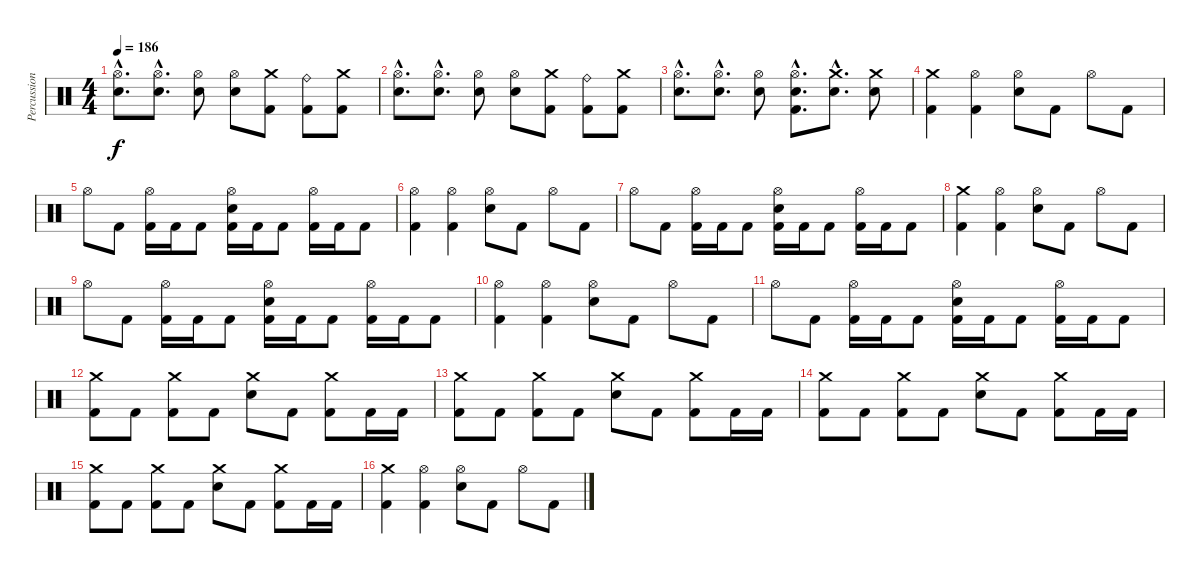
\track ("Percussion" "Percussion") {instrument percussion}
\staff {score}
\articulation defaults
\ts (4 4)
\tempo 186
\clef neutral
\ks c
("Hi-Hat (open)"{hac} "Snare (hit) 2"{hac}).8{d dy f} ("Hi-Hat (open)"{hac} "Snare (hit) 2"{hac}).8{d} ("Hi-Hat (open)" "Snare (hit) 2").8 ("Hi-Hat (open)" "Snare (hit) 2").8 ("Crash medium (hit)" "Kick (hit) 2").8 ("Ride (bell)" "Kick (hit) 2").8 ("Crash medium (hit)" "Kick (hit) 2").8 |
("Hi-Hat (open)"{hac} "Snare (hit) 2"{hac}).8{d} ("Hi-Hat (open)"{hac} "Snare (hit) 2"{hac}).8{d} ("Hi-Hat (open)" "Snare (hit) 2").8 ("Hi-Hat (open)" "Snare (hit) 2").8 ("Crash medium (hit)" "Kick (hit) 2").8 ("Ride (bell)" "Kick (hit) 2").8 ("Crash medium (hit)" "Kick (hit) 2").8 |
("Hi-Hat (open)"{hac} "Snare (hit) 2"{hac}).8{d} ("Hi-Hat (open)"{hac} "Snare (hit) 2"{hac}).8{d} ("Hi-Hat (open)" "Snare (hit) 2").8 ("Hi-Hat (open)"{hac} "Snare (hit) 2"{hac} "Kick (hit) 2"{hac}).8{d} ("Crash medium (hit)"{hac} "Snare (hit) 2"{hac}).8{d} ("Crash medium (hit)" "Snare (hit) 2").8 |
("Crash medium (hit)" "Kick (hit) 2").4 ("Hi-Hat (open)" "Kick (hit) 2").4 ("Hi-Hat (open)" "Snare (hit) 2").8 "Kick (hit) 2".8 "Hi-Hat (open)".8 "Kick (hit) 2".8 |
"Hi-Hat (open)".8 "Kick (hit) 2".8 ("Hi-Hat (open)" "Kick (hit) 2").16 "Kick (hit) 2".16 "Kick (hit) 2".8 ("Hi-Hat (open)" "Snare (hit) 2" "Kick (hit) 2").16 "Kick (hit) 2".16 "Kick (hit) 2".8 ("Hi-Hat (open)" "Kick (hit) 2").16 "Kick (hit) 2".16 "Kick (hit) 2".8 |
("Hi-Hat (open)" "Kick (hit) 2").4 ("Hi-Hat (open)" "Kick (hit) 2").4 ("Hi-Hat (open)" "Snare (hit) 2").8 "Kick (hit) 2".8 "Hi-Hat (open)".8 "Kick (hit) 2".8 |
"Hi-Hat (open)".8 "Kick (hit) 2".8 ("Hi-Hat (open)" "Kick (hit) 2").16 "Kick (hit) 2".16 "Kick (hit) 2".8 ("Hi-Hat (open)" "Snare (hit) 2" "Kick (hit) 2").16 "Kick (hit) 2".16 "Kick (hit) 2".8 ("Hi-Hat (open)" "Kick (hit) 2").16 "Kick (hit) 2".16 "Kick (hit) 2".8 |
("Crash medium (hit)" "Kick (hit) 2").4 ("Hi-Hat (open)" "Kick (hit) 2").4 ("Hi-Hat (open)" "Snare (hit) 2").8 "Kick (hit) 2".8 "Hi-Hat (open)".8 "Kick (hit) 2".8 |
"Hi-Hat (open)".8 "Kick (hit) 2".8 ("Hi-Hat (open)" "Kick (hit) 2").16 "Kick (hit) 2".16 "Kick (hit) 2".8 ("Hi-Hat (open)" "Snare (hit) 2" "Kick (hit) 2").16 "Kick (hit) 2".16 "Kick (hit) 2".8 ("Hi-Hat (open)" "Kick (hit) 2").16 "Kick (hit) 2".16 "Kick (hit) 2".8 |
("Hi-Hat (open)" "Kick (hit) 2").4 ("Hi-Hat (open)" "Kick (hit) 2").4 ("Hi-Hat (open)" "Snare (hit) 2").8 "Kick (hit) 2".8 "Hi-Hat (open)".8 "Kick (hit) 2".8 |
"Hi-Hat (open)".8 "Kick (hit) 2".8 ("Hi-Hat (open)" "Kick (hit) 2").16 "Kick (hit) 2".16 "Kick (hit) 2".8 ("Hi-Hat (open)" "Snare (hit) 2" "Kick (hit) 2").16 "Kick (hit) 2".16 "Kick (hit) 2".8 ("Hi-Hat (open)" "Kick (hit) 2").16 "Kick (hit) 2".16 "Kick (hit) 2".8 |
("Crash medium (hit)" "Kick (hit) 2").8 "Kick (hit) 2".8 ("Crash medium (hit)" "Kick (hit) 2").8 "Kick (hit) 2".8 ("Crash medium (hit)" "Snare (hit) 2").8 "Kick (hit) 2".8 ("Crash medium (hit)" "Kick (hit) 2").8 "Kick (hit) 2".16 "Kick (hit) 2".16 |
("Crash medium (hit)" "Kick (hit) 2").8 "Kick (hit) 2".8 ("Crash medium (hit)" "Kick (hit) 2").8 "Kick (hit) 2".8 ("Crash medium (hit)" "Snare (hit) 2").8 "Kick (hit) 2".8 ("Crash medium (hit)" "Kick (hit) 2").8 "Kick (hit) 2".16 "Kick (hit) 2".16 |
("Crash medium (hit)" "Kick (hit) 2").8 "Kick (hit) 2".8 ("Crash medium (hit)" "Kick (hit) 2").8 "Kick (hit) 2".8 ("Crash medium (hit)" "Snare (hit) 2").8 "Kick (hit) 2".8 ("Crash medium (hit)" "Kick (hit) 2").8 "Kick (hit) 2".16 "Kick (hit) 2".16 |
("Crash medium (hit)" "Kick (hit) 2").8 "Kick (hit) 2".8 ("Crash medium (hit)" "Kick (hit) 2").8 "Kick (hit) 2".8 ("Crash medium (hit)" "Snare (hit) 2").8 "Kick (hit) 2".8 ("Crash medium (hit)" "Kick (hit) 2").8 "Kick (hit) 2".16 "Kick (hit) 2".16 |
("Crash medium (hit)" "Kick (hit) 2").4 ("Hi-Hat (open)" "Kick (hit) 2").4 ("Hi-Hat (open)" "Snare (hit) 2").8 "Kick (hit) 2".8 "Hi-Hat (open)".8 "Kick (hit) 2".8
